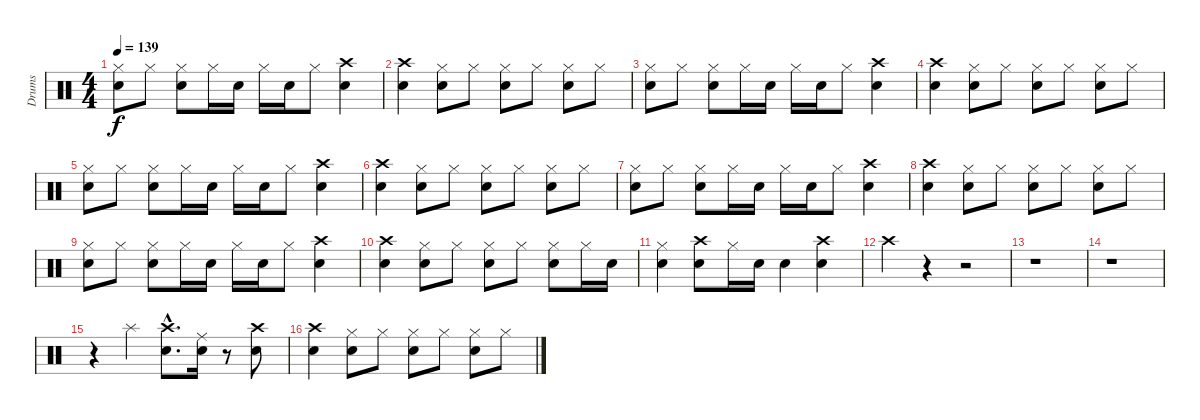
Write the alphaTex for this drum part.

\track ("Drums" "Drums") {instrument percussion}
\staff {score}
\articulation defaults
\ts (4 4)
\tempo 139
\clef neutral
\ks c
("Hi-Hat (closed)" "Snare (hit) 2").8{dy f} "Hi-Hat (closed)".8 ("Hi-Hat (closed)" "Snare (hit) 2").8 "Hi-Hat (closed)".16 "Snare (hit) 2".16 "Hi-Hat (closed)".16 "Snare (hit) 2".16 "Hi-Hat (closed)".8 ("Crash high (hit)" "Snare (hit) 2").4 |
("Crash high (hit)" "Snare (hit) 2").4 ("Hi-Hat (closed)" "Snare (hit) 2").8 "Hi-Hat (closed)".8 ("Hi-Hat (closed)" "Snare (hit) 2").8 "Hi-Hat (closed)".8 ("Hi-Hat (closed)" "Snare (hit) 2").8 "Hi-Hat (closed)".8 |
("Hi-Hat (closed)" "Snare (hit) 2").8 "Hi-Hat (closed)".8 ("Hi-Hat (closed)" "Snare (hit) 2").8 "Hi-Hat (closed)".16 "Snare (hit) 2".16 "Hi-Hat (closed)".16 "Snare (hit) 2".16 "Hi-Hat (closed)".8 ("Crash high (hit)" "Snare (hit) 2").4 |
("Crash high (hit)" "Snare (hit) 2").4 ("Hi-Hat (closed)" "Snare (hit) 2").8 "Hi-Hat (closed)".8 ("Hi-Hat (closed)" "Snare (hit) 2").8 "Hi-Hat (closed)".8 ("Hi-Hat (closed)" "Snare (hit) 2").8 "Hi-Hat (closed)".8 |
("Hi-Hat (closed)" "Snare (hit) 2").8 "Hi-Hat (closed)".8 ("Hi-Hat (closed)" "Snare (hit) 2").8 "Hi-Hat (closed)".16 "Snare (hit) 2".16 "Hi-Hat (closed)".16 "Snare (hit) 2".16 "Hi-Hat (closed)".8 ("Crash high (hit)" "Snare (hit) 2").4 |
("Crash high (hit)" "Snare (hit) 2").4 ("Hi-Hat (closed)" "Snare (hit) 2").8 "Hi-Hat (closed)".8 ("Hi-Hat (closed)" "Snare (hit) 2").8 "Hi-Hat (closed)".8 ("Hi-Hat (closed)" "Snare (hit) 2").8 "Hi-Hat (closed)".8 |
("Hi-Hat (closed)" "Snare (hit) 2").8 "Hi-Hat (closed)".8 ("Hi-Hat (closed)" "Snare (hit) 2").8 "Hi-Hat (closed)".16 "Snare (hit) 2".16 "Hi-Hat (closed)".16 "Snare (hit) 2".16 "Hi-Hat (closed)".8 ("Crash high (hit)" "Snare (hit) 2").4 |
("Crash high (hit)" "Snare (hit) 2").4 ("Hi-Hat (closed)" "Snare (hit) 2").8 "Hi-Hat (closed)".8 ("Hi-Hat (closed)" "Snare (hit) 2").8 "Hi-Hat (closed)".8 ("Hi-Hat (closed)" "Snare (hit) 2").8 "Hi-Hat (closed)".8 |
("Hi-Hat (closed)" "Snare (hit) 2").8 "Hi-Hat (closed)".8 ("Hi-Hat (closed)" "Snare (hit) 2").8 "Hi-Hat (closed)".16 "Snare (hit) 2".16 "Hi-Hat (closed)".16 "Snare (hit) 2".16 "Hi-Hat (closed)".8 ("Crash high (hit)" "Snare (hit) 2").4 |
("Crash high (hit)" "Snare (hit) 2").4 ("Hi-Hat (closed)" "Snare (hit) 2").8 "Hi-Hat (closed)".8 ("Hi-Hat (closed)" "Snare (hit) 2").8 "Hi-Hat (closed)".8 ("Hi-Hat (closed)" "Snare (hit) 2").8 "Hi-Hat (closed)".16 "Snare (hit) 2".16 |
("Hi-Hat (closed)" "Snare (hit) 2").4 ("Crash high (hit)" "Snare (hit) 2").8 "Hi-Hat (closed)".16 "Snare (hit) 2".16 "Snare (hit) 2".4 ("Crash high (hit)" "Snare (hit) 2").4 |
"Crash high (hit)".4 r.4 r.2 |
r.1 |
r.1 |
r.4 "Splash (hit)".4 ("Crash high (hit)"{hac} "Snare (hit) 2"{hac}).8{d} ("Ride (middle)" "Snare (hit) 2").16 r.8 ("Crash high (hit)" "Snare (hit) 2").8 |
("Crash high (hit)" "Snare (hit) 2").4 ("Hi-Hat (closed)" "Snare (hit) 2").8 "Hi-Hat (closed)".8 ("Hi-Hat (closed)" "Snare (hit) 2").8 "Hi-Hat (closed)".8 ("Hi-Hat (closed)" "Snare (hit) 2").8 "Hi-Hat (closed)".8
